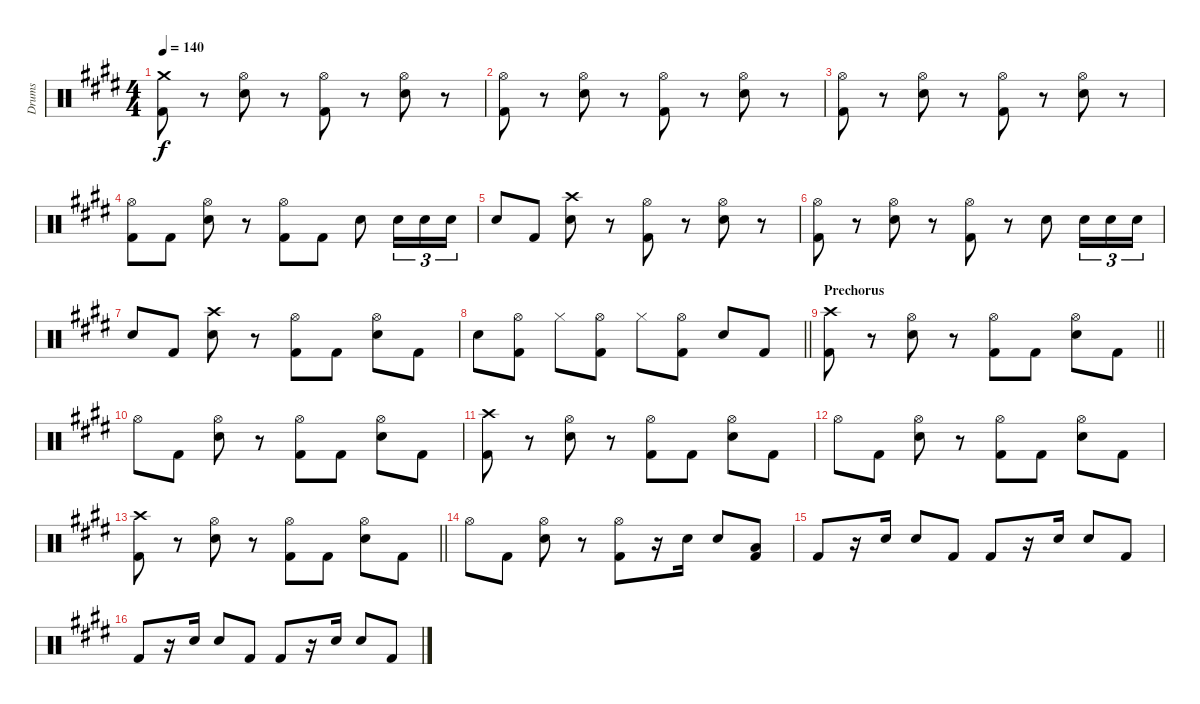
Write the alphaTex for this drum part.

\track ("Drums" "Drums") {instrument percussion}
\staff {score}
\articulation defaults
\ts (4 4)
\tempo 140
\clef neutral
\ks c#minor
("Crash medium (hit)" "Kick (hit) 2").8{dy f} r.8 ("Hi-Hat (open)" "Electric Snare (hit)").8 r.8 ("Hi-Hat (open)" "Kick (hit) 2").8 r.8 ("Hi-Hat (open)" "Electric Snare (hit)").8 r.8 |
("Hi-Hat (open)" "Kick (hit) 2").8 r.8 ("Hi-Hat (open)" "Electric Snare (hit)").8 r.8 ("Hi-Hat (open)" "Kick (hit) 2").8 r.8 ("Hi-Hat (open)" "Electric Snare (hit)").8 r.8 |
("Hi-Hat (open)" "Kick (hit) 2").8 r.8 ("Hi-Hat (open)" "Electric Snare (hit)").8 r.8 ("Hi-Hat (open)" "Kick (hit) 2").8 r.8 ("Hi-Hat (open)" "Electric Snare (hit)").8 r.8 |
("Hi-Hat (open)" "Kick (hit) 2").8 "Kick (hit) 2".8 ("Hi-Hat (open)" "Electric Snare (hit)").8 r.8 ("Hi-Hat (open)" "Kick (hit) 2").8 "Kick (hit) 2".8 "Electric Snare (hit)".8 "Electric Snare (hit)".16{tu (3 2)} "Electric Snare (hit)".16{tu (3 2)} "Electric Snare (hit)".16{tu (3 2)} |
\ks e "Electric Snare (hit)".8 "Kick (hit) 2".8
("Crash high (hit)" "Electric Snare (hit)").8 r.8 ("Hi-Hat (open)" "Kick (hit) 2").8 r.8 ("Hi-Hat (open)" "Electric Snare (hit)").8 r.8 |
\ks c#minor
("Hi-Hat (open)" "Kick (hit) 2").8 r.8 ("Hi-Hat (open)" "Electric Snare (hit)").8 r.8 ("Hi-Hat (open)" "Kick (hit) 2").8 r.8 "Electric Snare (hit)".8 "Electric Snare (hit)".16{tu (3 2)} "Electric Snare (hit)".16{tu (3 2)} "Electric Snare (hit)".16{tu (3 2)} |
\ks e "Electric Snare (hit)".8 "Kick (hit) 2".8
("Crash high (hit)" "Electric Snare (hit)").8 r.8 ("Hi-Hat (open)" "Kick (hit) 2").8 "Kick (hit) 2".8 ("Hi-Hat (open)" "Electric Snare (hit)").8 "Kick (hit) 2".8 |
\barLineRight lightlight
\ks c#minor "Electric Snare (hit)".8
("Hi-Hat (open)" "Kick (hit) 2").8 "Hi-Hat (closed)".8 ("Hi-Hat (open)" "Kick (hit) 2").8 "Hi-Hat (closed)".8 ("Hi-Hat (open)" "Kick (hit) 2").8 "Electric Snare (hit)".8 "Kick (hit) 2".8 |
\section ("" "Prechorus")
\barLineRight lightlight
("Crash high (hit)" "Kick (hit) 2").8 r.8 ("Hi-Hat (open)" "Electric Snare (hit)").8 r.8 ("Hi-Hat (open)" "Kick (hit) 2").8 "Kick (hit) 2".8 ("Hi-Hat (open)" "Electric Snare (hit)").8 "Kick (hit) 2".8 |
"Hi-Hat (open)".8 "Kick (hit) 2".8 ("Hi-Hat (open)" "Electric Snare (hit)").8 r.8 ("Hi-Hat (open)" "Kick (hit) 2").8 "Kick (hit) 2".8 ("Hi-Hat (open)" "Electric Snare (hit)").8 "Kick (hit) 2".8 |
("Crash high (hit)" "Kick (hit) 2").8 r.8 ("Hi-Hat (open)" "Electric Snare (hit)").8 r.8 ("Hi-Hat (open)" "Kick (hit) 2").8 "Kick (hit) 2".8 ("Hi-Hat (open)" "Electric Snare (hit)").8 "Kick (hit) 2".8 |
"Hi-Hat (open)".8 "Kick (hit) 2".8 ("Hi-Hat (open)" "Electric Snare (hit)").8 r.8 ("Hi-Hat (open)" "Kick (hit) 2").8 "Kick (hit) 2".8 ("Hi-Hat (open)" "Electric Snare (hit)").8 "Kick (hit) 2".8 |
\barLineRight lightlight
("Crash high (hit)" "Kick (hit) 2").8 r.8 ("Hi-Hat (open)" "Electric Snare (hit)").8 r.8 ("Hi-Hat (open)" "Kick (hit) 2").8 "Kick (hit) 2".8 ("Hi-Hat (open)" "Electric Snare (hit)").8 "Kick (hit) 2".8 |
"Hi-Hat (open)".8 "Kick (hit) 2".8 ("Hi-Hat (open)" "Electric Snare (hit)").8 r.8 ("Hi-Hat (open)" "Kick (hit) 2").8 r.16 "Electric Snare (hit)".16 "Electric Snare (hit)".8 ("Low Tom (hit)" "Kick (hit) 2").8 |
"Kick (hit) 2".8 r.16 "Electric Snare (hit)".16 "Electric Snare (hit)".8 "Kick (hit) 2".8 "Kick (hit) 2".8 r.16 "Electric Snare (hit)".16 "Electric Snare (hit)".8 "Kick (hit) 2".8 |
"Kick (hit) 2".8 r.16 "Electric Snare (hit)".16 "Electric Snare (hit)".8 "Kick (hit) 2".8 "Kick (hit) 2".8 r.16 "Electric Snare (hit)".16 "Electric Snare (hit)".8 "Kick (hit) 2".8
